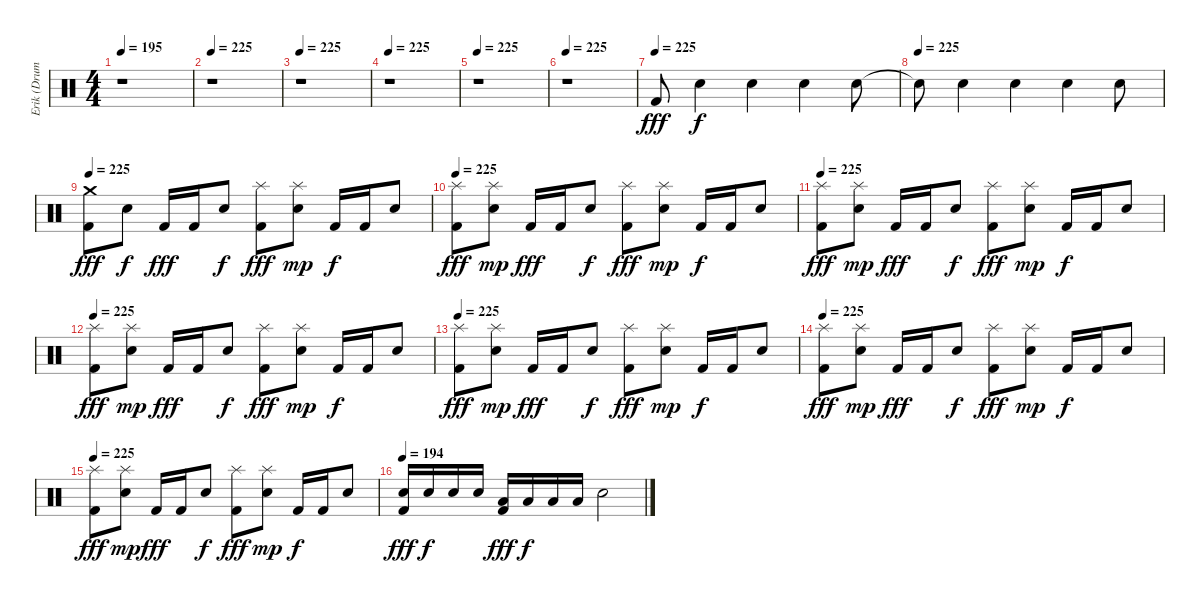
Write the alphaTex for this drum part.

\track ("Erik (Drums)" "Erik (Drum") {instrument percussion}
\staff {score}
\articulation defaults
\ts (4 4)
\tempo 195
\tempo 225
\tempo 195
\clef neutral
\ks c
r.1{dy fff} |
\tempo 225
r.1 |
\tempo 225
r.1 |
\tempo 225
r.1 |
\tempo 225
r.1 |
\tempo 225
r.1 |
\tempo (225)
"Kick (hit) 2".8 "Electric Snare (hit)".4{dy f} "Electric Snare (hit)".4 "Electric Snare (hit)".4 "Electric Snare (hit)".8 |
\tempo (225)
"Snare (hit)"{t}.8 "Electric Snare (hit)".4 "Electric Snare (hit)".4 "Electric Snare (hit)".4 "Electric Snare (hit)".8 |
\tempo 225
("Crash medium (hit)" "Kick (hit) 2").8{dy fff} "Electric Snare (hit)".8{dy f} "Kick (hit) 2".16{dy fff} "Kick (hit) 2".16 "Electric Snare (hit)".8{dy f} ("Splash (hit)" "Kick (hit) 2").8{dy fff} ("Splash (hit)" "Electric Snare (hit)").8{dy mp} "Kick (hit) 2".16{dy f} "Kick (hit) 2".16 "Electric Snare (hit)".8 |
\tempo 225
("Splash (hit)" "Kick (hit) 2").8{dy fff} ("Splash (hit)" "Electric Snare (hit)").8{dy mp} "Kick (hit) 2".16{dy fff} "Kick (hit) 2".16 "Electric Snare (hit)".8{dy f} ("Splash (hit)" "Kick (hit) 2").8{dy fff} ("Splash (hit)" "Electric Snare (hit)").8{dy mp} "Kick (hit) 2".16{dy f} "Kick (hit) 2".16 "Electric Snare (hit)".8 |
\tempo 225
("Splash (hit)" "Kick (hit) 2").8{dy fff} ("Splash (hit)" "Electric Snare (hit)").8{dy mp} "Kick (hit) 2".16{dy fff} "Kick (hit) 2".16 "Electric Snare (hit)".8{dy f} ("Splash (hit)" "Kick (hit) 2").8{dy fff} ("Splash (hit)" "Electric Snare (hit)").8{dy mp} "Kick (hit) 2".16{dy f} "Kick (hit) 2".16 "Electric Snare (hit)".8 |
\tempo 225
("Splash (hit)" "Kick (hit) 2").8{dy fff} ("Splash (hit)" "Electric Snare (hit)").8{dy mp} "Kick (hit) 2".16{dy fff} "Kick (hit) 2".16 "Electric Snare (hit)".8{dy f} ("Splash (hit)" "Kick (hit) 2").8{dy fff} ("Splash (hit)" "Electric Snare (hit)").8{dy mp} "Kick (hit) 2".16{dy f} "Kick (hit) 2".16 "Electric Snare (hit)".8 |
\tempo 225
("Splash (hit)" "Kick (hit) 2").8{dy fff} ("Splash (hit)" "Electric Snare (hit)").8{dy mp} "Kick (hit) 2".16{dy fff} "Kick (hit) 2".16 "Electric Snare (hit)".8{dy f} ("Splash (hit)" "Kick (hit) 2").8{dy fff} ("Splash (hit)" "Electric Snare (hit)").8{dy mp} "Kick (hit) 2".16{dy f} "Kick (hit) 2".16 "Electric Snare (hit)".8 |
\tempo 225
("Splash (hit)" "Kick (hit) 2").8{dy fff} ("Splash (hit)" "Electric Snare (hit)").8{dy mp} "Kick (hit) 2".16{dy fff} "Kick (hit) 2".16 "Electric Snare (hit)".8{dy f} ("Splash (hit)" "Kick (hit) 2").8{dy fff} ("Splash (hit)" "Electric Snare (hit)").8{dy mp} "Kick (hit) 2".16{dy f} "Kick (hit) 2".16 "Electric Snare (hit)".8 |
\tempo 225
("Splash (hit)" "Kick (hit) 2").8{dy fff} ("Splash (hit)" "Electric Snare (hit)").8{dy mp} "Kick (hit) 2".16{dy fff} "Kick (hit) 2".16 "Electric Snare (hit)".8{dy f} ("Splash (hit)" "Kick (hit) 2").8{dy fff} ("Splash (hit)" "Electric Snare (hit)").8{dy mp} "Kick (hit) 2".16{dy f} "Kick (hit) 2".16 "Electric Snare (hit)".8 |
\tempo 194
("Electric Snare (hit)" "Kick (hit) 2").16{dy fff} "Electric Snare (hit)".16{dy f} "Electric Snare (hit)".16 "Electric Snare (hit)".16 ("Low Tom (hit)" "Kick (hit) 2").16{dy fff} "Low Tom (hit)".16{dy f} "Low Tom (hit)".16 "Low Tom (hit)".16 "Electric Snare (hit)".2
